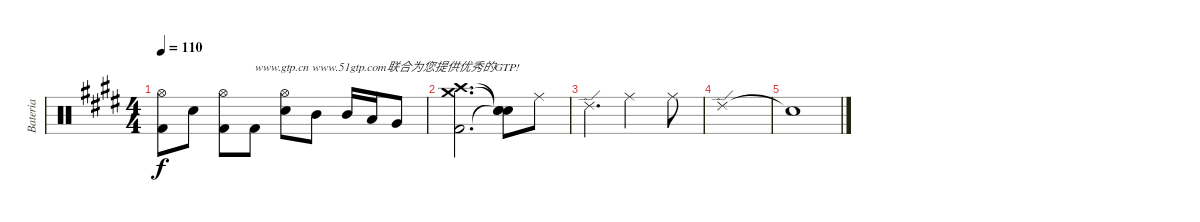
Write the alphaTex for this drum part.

\track ("Bateria" "Bateria") {instrument percussion}
\staff {score}
\articulation defaults
\ts (4 4)
\section ("" "")
\tempo 110
\clef neutral
\ks e
("Hi-Hat (open)" "Kick (hit) 2").8{dy f} "Snare (hit) 2".8 ("Hi-Hat (open)" "Kick (hit) 2").8 "Kick (hit) 2".8{txt "www.gtp.cn www.51gtp.com联合为您提供优秀的GTP!"} ("Hi-Hat (open)" "Snare (hit) 2").8 "Mid Tom (hit)".8 "Mid Tom (hit)".16 "Low Tom (hit)".16 "Very Low Tom (hit)".8 |
("Kick (hit) 2" "Crash medium (hit)" "Crash high (hit)").2{d} ("Snare (hit)"{t} "Snare (hit)"{t} "Snare (hit)"{t}).8 "Ride (middle)".8 |
"Ride (edge) 2".4{d} "Ride (middle)".2 "Ride (middle)".8 |
"Ride (edge) 2".1 |
"Snare (hit)"{t}.1
